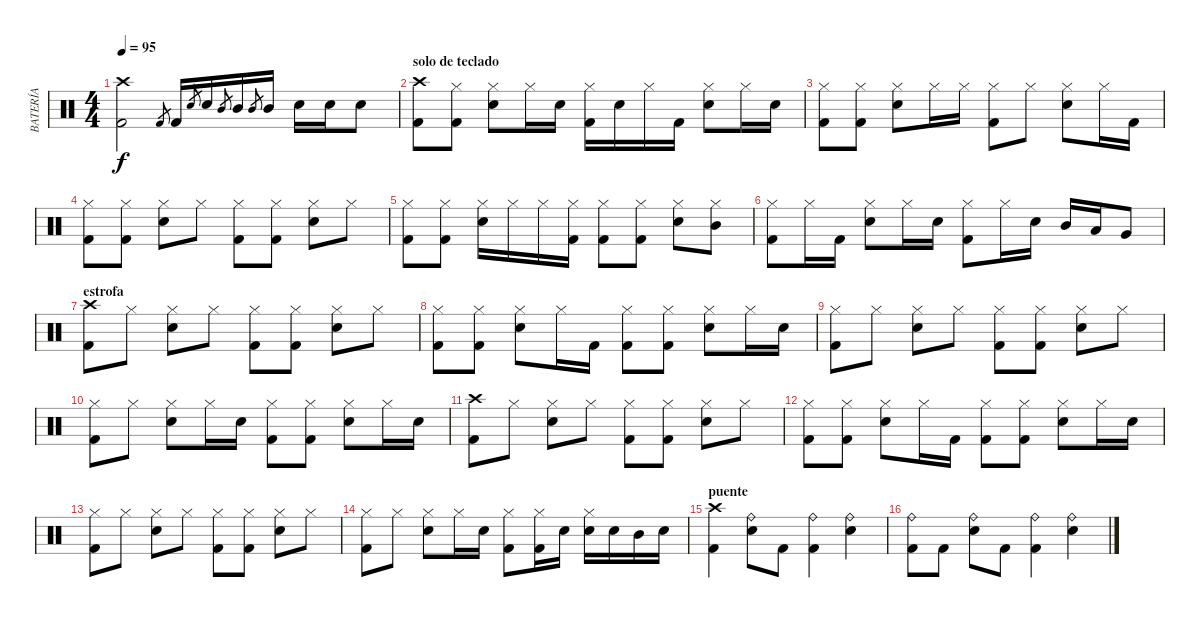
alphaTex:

\track ("BATERÍA" "BATERÍA") {instrument percussion}
\staff {score}
\articulation defaults
\ts (4 4)
\tempo 95
\clef neutral
\ks c
("Crash high (hit)" "Kick (hit) 2").2{dy f} "Kick (hit) 2".8{gr} "Kick (hit) 2".16 "Electric Snare (hit)".8{gr} "Electric Snare (hit)".16 "Mid Tom (hit)".8{gr} "Mid Tom (hit)".16 "Mid Tom (hit)".8{gr} "Mid Tom (hit)".16 "Electric Snare (hit)".16 "Electric Snare (hit)".16 "Electric Snare (hit)".8 |
\section ("" "solo de teclado")
("Crash high (hit)" "Kick (hit) 2").8 ("Hi-Hat (closed)" "Kick (hit) 2").8 ("Hi-Hat (closed)" "Electric Snare (hit)").8 "Hi-Hat (closed)".16 "Electric Snare (hit)".16 ("Hi-Hat (closed)" "Kick (hit) 2").16 "Electric Snare (hit)".16 "Hi-Hat (closed)".16 "Kick (hit) 2".16 ("Hi-Hat (closed)" "Electric Snare (hit)").8 "Hi-Hat (closed)".16 "Electric Snare (hit)".16 |
("Hi-Hat (closed)" "Kick (hit) 2").8 ("Hi-Hat (closed)" "Kick (hit) 2").8 ("Electric Snare (hit)" "Hi-Hat (closed)").8 "Hi-Hat (closed)".16 "Hi-Hat (closed)".16 ("Hi-Hat (closed)" "Kick (hit) 2").8 "Hi-Hat (closed)".8 ("Hi-Hat (closed)" "Electric Snare (hit)").8 "Hi-Hat (closed)".16 "Kick (hit) 2".16 |
("Kick (hit) 2" "Hi-Hat (closed)").8 ("Kick (hit) 2" "Hi-Hat (closed)").8 ("Electric Snare (hit)" "Hi-Hat (closed)").8 "Hi-Hat (closed)".8 ("Kick (hit) 2" "Hi-Hat (closed)").8 ("Kick (hit) 2" "Hi-Hat (closed)").8 ("Electric Snare (hit)" "Hi-Hat (closed)").8 "Hi-Hat (closed)".8 |
("Kick (hit) 2" "Hi-Hat (closed)").8 ("Kick (hit) 2" "Hi-Hat (closed)").8 ("Electric Snare (hit)" "Hi-Hat (closed)").16 "Hi-Hat (closed)".16 "Hi-Hat (closed)".16 ("Hi-Hat (closed)" "Kick (hit) 2").16 ("Kick (hit) 2" "Hi-Hat (closed)").8 ("Kick (hit) 2" "Hi-Hat (closed)").8 ("Electric Snare (hit)" "Hi-Hat (closed)").8 ("Mid Tom (hit)" "Hi-Hat (closed)").8 |
("Hi-Hat (closed)" "Kick (hit) 2").8 "Hi-Hat (closed)".16 "Kick (hit) 2".16 ("Hi-Hat (closed)" "Electric Snare (hit)").8 "Hi-Hat (closed)".16 "Electric Snare (hit)".16 ("Hi-Hat (closed)" "Kick (hit) 2").8 "Hi-Hat (closed)".16 "Electric Snare (hit)".16 "Mid Tom (hit)".16 "Low Tom (hit)".16 "Very Low Tom (hit)".8 |
\section ("" "estrofa")
("Crash high (hit)" "Kick (hit) 2").8 "Hi-Hat (closed)".8 ("Hi-Hat (closed)" "Electric Snare (hit)").8 "Hi-Hat (closed)".8 ("Hi-Hat (closed)" "Kick (hit) 2").8 ("Hi-Hat (closed)" "Kick (hit) 2").8 ("Hi-Hat (closed)" "Electric Snare (hit)").8 "Hi-Hat (closed)".8 |
("Hi-Hat (closed)" "Kick (hit) 2").8 ("Hi-Hat (closed)" "Kick (hit) 2").8 ("Hi-Hat (closed)" "Electric Snare (hit)").8 "Hi-Hat (closed)".16 "Kick (hit) 2".16 ("Hi-Hat (closed)" "Kick (hit) 2").8 ("Hi-Hat (closed)" "Kick (hit) 2").8 ("Hi-Hat (closed)" "Electric Snare (hit)").8 "Hi-Hat (closed)".16 "Electric Snare (hit)".16 |
("Hi-Hat (closed)" "Kick (hit) 2").8 "Hi-Hat (closed)".8 ("Hi-Hat (closed)" "Electric Snare (hit)").8 "Hi-Hat (closed)".8 ("Hi-Hat (closed)" "Kick (hit) 2").8 ("Hi-Hat (closed)" "Kick (hit) 2").8 ("Hi-Hat (closed)" "Electric Snare (hit)").8 "Hi-Hat (closed)".8 |
("Hi-Hat (closed)" "Kick (hit) 2").8 "Hi-Hat (closed)".8 ("Hi-Hat (closed)" "Electric Snare (hit)").8 "Hi-Hat (closed)".16 "Electric Snare (hit)".16 ("Hi-Hat (closed)" "Kick (hit) 2").8 ("Hi-Hat (closed)" "Kick (hit) 2").8 ("Hi-Hat (closed)" "Electric Snare (hit)").8 "Hi-Hat (closed)".16 "Electric Snare (hit)".16 |
("Crash high (hit)" "Kick (hit) 2").8 "Hi-Hat (closed)".8 ("Hi-Hat (closed)" "Electric Snare (hit)").8 "Hi-Hat (closed)".8 ("Hi-Hat (closed)" "Kick (hit) 2").8 ("Hi-Hat (closed)" "Kick (hit) 2").8 ("Hi-Hat (closed)" "Electric Snare (hit)").8 "Hi-Hat (closed)".8 |
("Hi-Hat (closed)" "Kick (hit) 2").8 ("Hi-Hat (closed)" "Kick (hit) 2").8 ("Hi-Hat (closed)" "Electric Snare (hit)").8 "Hi-Hat (closed)".16 "Kick (hit) 2".16 ("Hi-Hat (closed)" "Kick (hit) 2").8 ("Hi-Hat (closed)" "Kick (hit) 2").8 ("Hi-Hat (closed)" "Electric Snare (hit)").8 "Hi-Hat (closed)".16 "Electric Snare (hit)".16 |
("Hi-Hat (closed)" "Kick (hit) 2").8 "Hi-Hat (closed)".8 ("Hi-Hat (closed)" "Electric Snare (hit)").8 "Hi-Hat (closed)".8 ("Hi-Hat (closed)" "Kick (hit) 2").8 ("Hi-Hat (closed)" "Kick (hit) 2").8 ("Hi-Hat (closed)" "Electric Snare (hit)").8 "Hi-Hat (closed)".8 |
("Hi-Hat (closed)" "Kick (hit) 2").8 "Hi-Hat (closed)".8 ("Hi-Hat (closed)" "Electric Snare (hit)").8 "Hi-Hat (closed)".16 "Electric Snare (hit)".16 ("Hi-Hat (closed)" "Kick (hit) 2").8 ("Hi-Hat (closed)" "Kick (hit) 2").16 "Electric Snare (hit)".16 ("Hi-Hat (closed)" "Electric Snare (hit)").16 "Electric Snare (hit)".16 "Mid Tom (hit)".16 "Electric Snare (hit)".16 |
\section ("" "puente")
("Crash high (hit)" "Kick (hit) 2").4 ("Ride (bell)" "Electric Snare (hit)").8 "Kick (hit) 2".8 ("Ride (bell)" "Kick (hit) 2").4 ("Ride (bell)" "Electric Snare (hit)").4 |
("Ride (bell)" "Kick (hit) 2").8 "Kick (hit) 2".8 ("Ride (bell)" "Electric Snare (hit)").8 "Kick (hit) 2".8 ("Ride (bell)" "Kick (hit) 2").4 ("Ride (bell)" "Electric Snare (hit)").4
